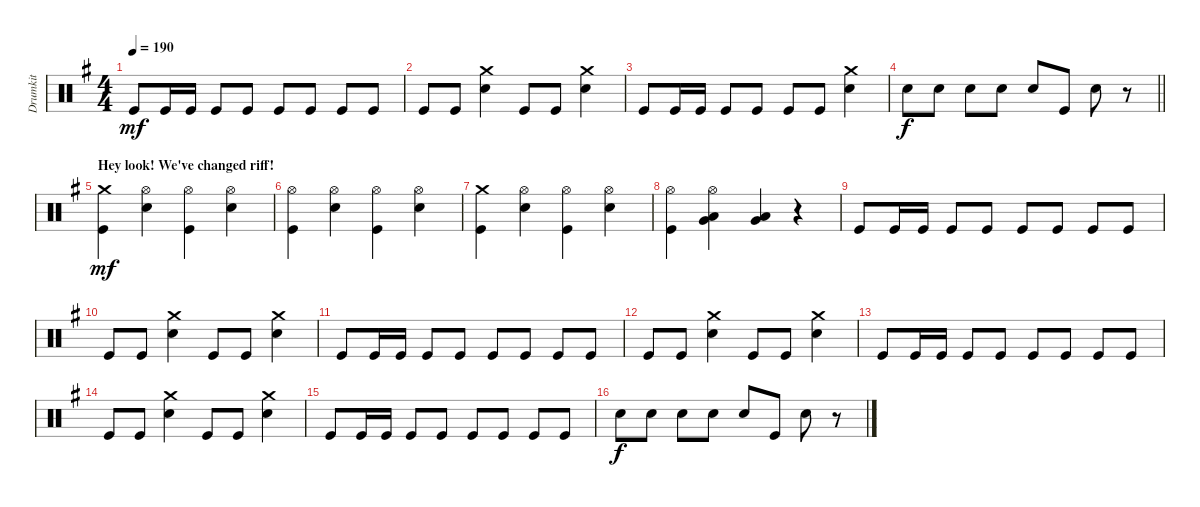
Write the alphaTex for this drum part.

\track ("Drumkit" "Drumkit") {instrument percussion}
\staff {score}
\articulation defaults
\ts (4 4)
\tempo 190
\clef neutral
\ks eminor "Kick (hit)".8{dy mf} "Kick (hit)".16 "Kick (hit)".16 "Kick (hit)".8 "Kick (hit)".8 "Kick (hit)".8 "Kick (hit)".8 "Kick (hit)".8 "Kick (hit)".8
|
"Kick (hit)".8 "Kick (hit)".8 ("Snare (hit) 2" "Crash medium (hit)").4 "Kick (hit)".8 "Kick (hit)".8 ("Snare (hit) 2" "Crash medium (hit)").4 |
"Kick (hit)".8 "Kick (hit)".16 "Kick (hit)".16 "Kick (hit)".8 "Kick (hit)".8 "Kick (hit)".8 "Kick (hit)".8 ("Snare (hit) 2" "Crash medium (hit)").4 |
\barLineRight lightlight "Snare (hit) 2".8{dy f} "Snare (hit) 2".8 "Snare (hit) 2".8 "Snare (hit) 2".8 "Snare (hit) 2".8 "Kick (hit)".8 "Snare (hit) 2".8
r.8 |
\section ("" "Hey look! We've changed riff!")
("Kick (hit)" "Crash medium (hit)").4{dy mf} ("Snare (hit) 2" "Hi-Hat (open)").4 ("Kick (hit)" "Hi-Hat (open)").4 ("Snare (hit) 2" "Hi-Hat (open)").4 |
("Kick (hit)" "Hi-Hat (open)").4 ("Snare (hit) 2" "Hi-Hat (open)").4 ("Kick (hit)" "Hi-Hat (open)").4 ("Snare (hit) 2" "Hi-Hat (open)").4 |
("Kick (hit)" "Crash medium (hit)").4 ("Snare (hit) 2" "Hi-Hat (open)").4 ("Kick (hit)" "Hi-Hat (open)").4 ("Snare (hit) 2" "Hi-Hat (open)").4 |
("Kick (hit)" "Hi-Hat (open)").4 ("Hi-Hat (open)" "Low Tom (hit)" "Very Low Tom (hit)").4 ("Low Tom (hit)" "Very Low Tom (hit)").4 r.4 |
"Kick (hit)".8 "Kick (hit)".16 "Kick (hit)".16 "Kick (hit)".8 "Kick (hit)".8 "Kick (hit)".8 "Kick (hit)".8 "Kick (hit)".8 "Kick (hit)".8 |
"Kick (hit)".8 "Kick (hit)".8 ("Snare (hit) 2" "Crash medium (hit)").4 "Kick (hit)".8 "Kick (hit)".8 ("Snare (hit) 2" "Crash medium (hit)").4 |
"Kick (hit)".8 "Kick (hit)".16 "Kick (hit)".16 "Kick (hit)".8 "Kick (hit)".8 "Kick (hit)".8 "Kick (hit)".8 "Kick (hit)".8 "Kick (hit)".8 |
"Kick (hit)".8 "Kick (hit)".8 ("Snare (hit) 2" "Crash medium (hit)").4 "Kick (hit)".8 "Kick (hit)".8 ("Snare (hit) 2" "Crash medium (hit)").4 |
"Kick (hit)".8 "Kick (hit)".16 "Kick (hit)".16 "Kick (hit)".8 "Kick (hit)".8 "Kick (hit)".8 "Kick (hit)".8 "Kick (hit)".8 "Kick (hit)".8 |
"Kick (hit)".8 "Kick (hit)".8 ("Snare (hit) 2" "Crash medium (hit)").4 "Kick (hit)".8 "Kick (hit)".8 ("Snare (hit) 2" "Crash medium (hit)").4 |
"Kick (hit)".8 "Kick (hit)".16 "Kick (hit)".16 "Kick (hit)".8 "Kick (hit)".8 "Kick (hit)".8 "Kick (hit)".8 "Kick (hit)".8 "Kick (hit)".8 |
"Snare (hit) 2".8{dy f} "Snare (hit) 2".8 "Snare (hit) 2".8 "Snare (hit) 2".8 "Snare (hit) 2".8 "Kick (hit)".8 "Snare (hit) 2".8 r.8
